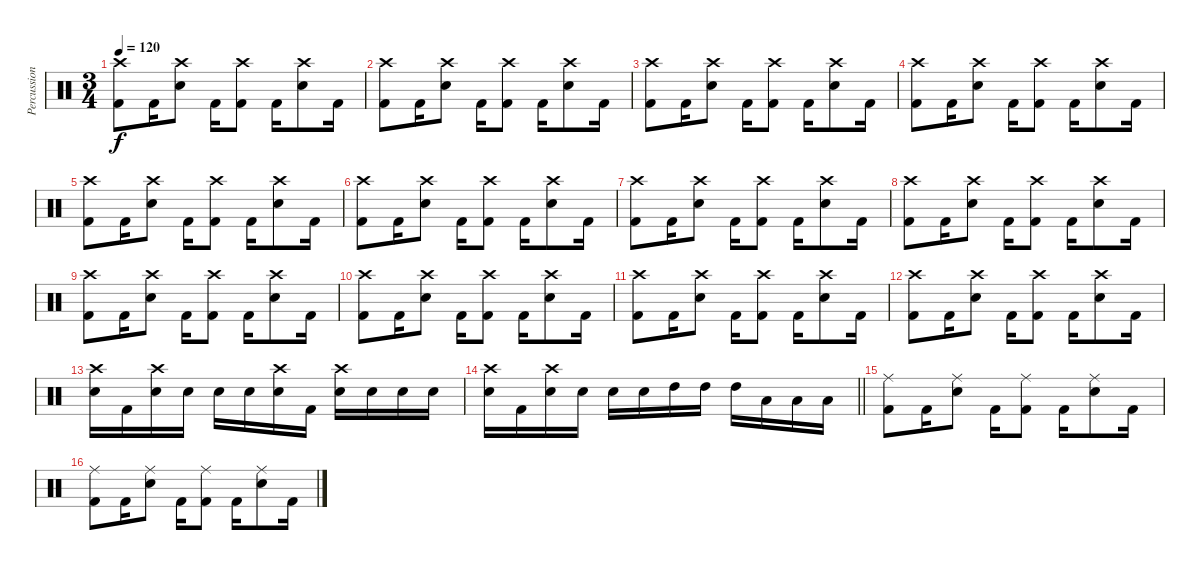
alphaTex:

\track ("Percussion" "Percussion") {instrument percussion}
\staff {score}
\articulation defaults
\ts (3 4)
\tempo 120
\clef neutral
\ks c
("Crash high (hit)" "Kick (hit) 2").8{dy f} "Kick (hit) 2".16 ("Crash high (hit)" "Snare (hit) 2").8 "Kick (hit) 2".16 ("Crash high (hit)" "Kick (hit) 2").8 "Kick (hit) 2".16 ("Crash high (hit)" "Snare (hit) 2").8 "Kick (hit) 2".16 |
("Crash high (hit)" "Kick (hit) 2").8 "Kick (hit) 2".16 ("Crash high (hit)" "Snare (hit) 2").8 "Kick (hit) 2".16 ("Crash high (hit)" "Kick (hit) 2").8 "Kick (hit) 2".16 ("Crash high (hit)" "Snare (hit) 2").8 "Kick (hit) 2".16 |
("Crash high (hit)" "Kick (hit) 2").8 "Kick (hit) 2".16 ("Crash high (hit)" "Snare (hit) 2").8 "Kick (hit) 2".16 ("Crash high (hit)" "Kick (hit) 2").8 "Kick (hit) 2".16 ("Crash high (hit)" "Snare (hit) 2").8 "Kick (hit) 2".16 |
("Crash high (hit)" "Kick (hit) 2").8 "Kick (hit) 2".16 ("Crash high (hit)" "Snare (hit) 2").8 "Kick (hit) 2".16 ("Crash high (hit)" "Kick (hit) 2").8 "Kick (hit) 2".16 ("Crash high (hit)" "Snare (hit) 2").8 "Kick (hit) 2".16 |
("Crash high (hit)" "Kick (hit) 2").8 "Kick (hit) 2".16 ("Crash high (hit)" "Snare (hit) 2").8 "Kick (hit) 2".16 ("Crash high (hit)" "Kick (hit) 2").8 "Kick (hit) 2".16 ("Crash high (hit)" "Snare (hit) 2").8 "Kick (hit) 2".16 |
("Crash high (hit)" "Kick (hit) 2").8 "Kick (hit) 2".16 ("Crash high (hit)" "Snare (hit) 2").8 "Kick (hit) 2".16 ("Crash high (hit)" "Kick (hit) 2").8 "Kick (hit) 2".16 ("Crash high (hit)" "Snare (hit) 2").8 "Kick (hit) 2".16 |
("Crash high (hit)" "Kick (hit) 2").8 "Kick (hit) 2".16 ("Crash high (hit)" "Snare (hit) 2").8 "Kick (hit) 2".16 ("Crash high (hit)" "Kick (hit) 2").8 "Kick (hit) 2".16 ("Crash high (hit)" "Snare (hit) 2").8 "Kick (hit) 2".16 |
("Crash high (hit)" "Kick (hit) 2").8 "Kick (hit) 2".16 ("Crash high (hit)" "Snare (hit) 2").8 "Kick (hit) 2".16 ("Crash high (hit)" "Kick (hit) 2").8 "Kick (hit) 2".16 ("Crash high (hit)" "Snare (hit) 2").8 "Kick (hit) 2".16 |
("Crash high (hit)" "Kick (hit) 2").8 "Kick (hit) 2".16 ("Crash high (hit)" "Snare (hit) 2").8 "Kick (hit) 2".16 ("Crash high (hit)" "Kick (hit) 2").8 "Kick (hit) 2".16 ("Crash high (hit)" "Snare (hit) 2").8 "Kick (hit) 2".16 |
("Crash high (hit)" "Kick (hit) 2").8 "Kick (hit) 2".16 ("Crash high (hit)" "Snare (hit) 2").8 "Kick (hit) 2".16 ("Crash high (hit)" "Kick (hit) 2").8 "Kick (hit) 2".16 ("Crash high (hit)" "Snare (hit) 2").8 "Kick (hit) 2".16 |
("Crash high (hit)" "Kick (hit) 2").8 "Kick (hit) 2".16 ("Crash high (hit)" "Snare (hit) 2").8 "Kick (hit) 2".16 ("Crash high (hit)" "Kick (hit) 2").8 "Kick (hit) 2".16 ("Crash high (hit)" "Snare (hit) 2").8 "Kick (hit) 2".16 |
("Crash high (hit)" "Kick (hit) 2").8 "Kick (hit) 2".16 ("Crash high (hit)" "Snare (hit) 2").8 "Kick (hit) 2".16 ("Crash high (hit)" "Kick (hit) 2").8 "Kick (hit) 2".16 ("Crash high (hit)" "Snare (hit) 2").8 "Kick (hit) 2".16 |
("Crash high (hit)" "Snare (hit) 2").16 "Kick (hit) 2".16 ("Crash high (hit)" "Snare (hit) 2").16 "Snare (hit) 2".16 "Snare (hit) 2".16 "Snare (hit) 2".16 ("Crash high (hit)" "Snare (hit) 2").16 "Kick (hit) 2".16 ("Crash high (hit)" "Snare (hit) 2").16 "Snare (hit) 2".16 "Snare (hit) 2".16 "Snare (hit) 2".16 |
\barLineRight lightlight
("Crash high (hit)" "Snare (hit) 2").16 "Kick (hit) 2".16 ("Crash high (hit)" "Snare (hit) 2").16 "Snare (hit) 2".16 "Snare (hit) 2".16 "Snare (hit) 2".16 "High Tom (hit)".16 "High Tom (hit)".16 "High Tom (hit)".16 "Low Tom (hit)".16 "Low Tom (hit)".16 "Low Tom (hit)".16 |
("Ride (middle)" "Kick (hit) 2").8 "Kick (hit) 2".16 ("Ride (middle)" "Snare (hit) 2").8 "Kick (hit) 2".16 ("Ride (middle)" "Kick (hit) 2").8 "Kick (hit) 2".16 ("Ride (middle)" "Snare (hit) 2").8 "Kick (hit) 2".16 |
("Ride (middle)" "Kick (hit) 2").8 "Kick (hit) 2".16 ("Ride (middle)" "Snare (hit) 2").8 "Kick (hit) 2".16 ("Ride (middle)" "Kick (hit) 2").8 "Kick (hit) 2".16 ("Ride (middle)" "Snare (hit) 2").8 "Kick (hit) 2".16
